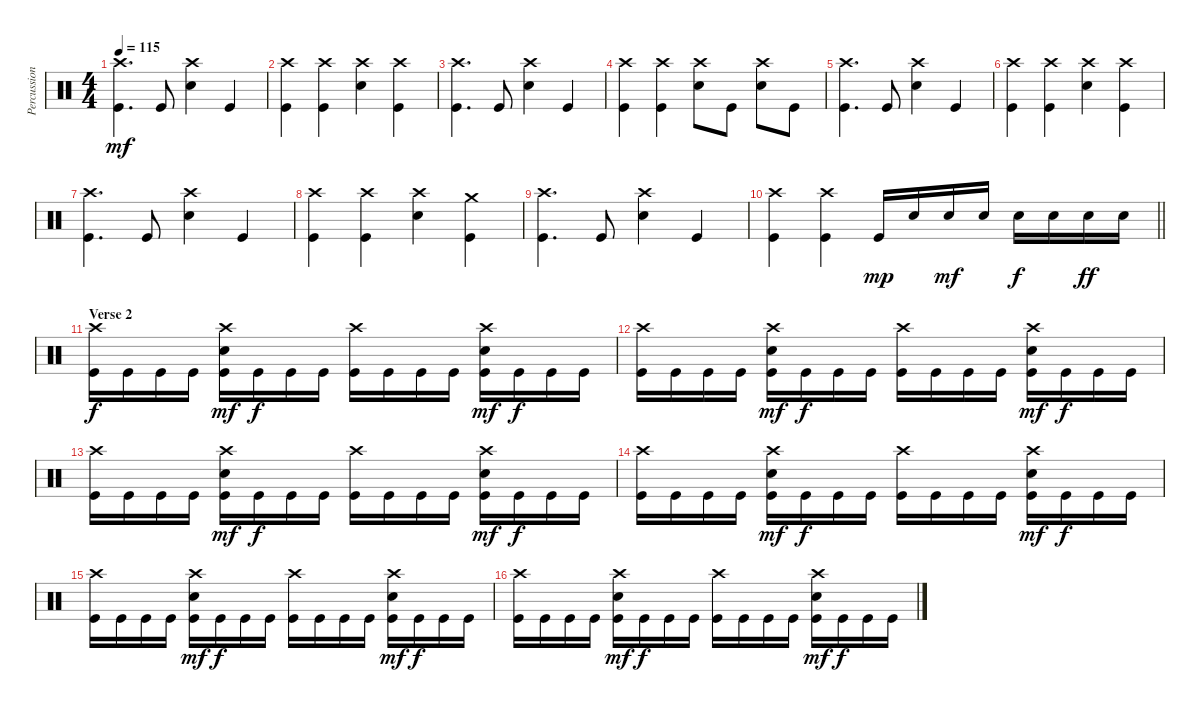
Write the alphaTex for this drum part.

\track ("Percussion" "Percussion") {instrument percussion}
\staff {score}
\articulation defaults
\ts (4 4)
\tempo 115
\clef neutral
\ks c
("Crash high (hit)" "Kick (hit)").4{d dy mf} "Kick (hit)".8 ("Snare (hit) 2" "Crash high (hit)").4 "Kick (hit)".4 |
("Crash high (hit)" "Kick (hit)").4 ("Crash high (hit)" "Kick (hit)").4 ("Snare (hit) 2" "Crash high (hit)").4 ("Crash high (hit)" "Kick (hit)").4 |
("Crash high (hit)" "Kick (hit)").4{d} "Kick (hit)".8 ("Snare (hit) 2" "Crash high (hit)").4 "Kick (hit)".4 |
("Crash high (hit)" "Kick (hit)").4 ("Crash high (hit)" "Kick (hit)").4 ("Snare (hit) 2" "Crash high (hit)").8 "Kick (hit)".8 ("Crash high (hit)" "Snare (hit) 2").8 "Kick (hit)".8 |
("Crash high (hit)" "Kick (hit)").4{d} "Kick (hit)".8 ("Snare (hit) 2" "Crash high (hit)").4 "Kick (hit)".4 |
("Crash high (hit)" "Kick (hit)").4 ("Crash high (hit)" "Kick (hit)").4 ("Snare (hit) 2" "Crash high (hit)").4 ("Crash high (hit)" "Kick (hit)").4 |
("Crash high (hit)" "Kick (hit)").4{d} "Kick (hit)".8 ("Snare (hit) 2" "Crash high (hit)").4 "Kick (hit)".4 |
("Crash high (hit)" "Kick (hit)").4 ("Crash high (hit)" "Kick (hit)").4 ("Snare (hit) 2" "Crash high (hit)").4 ("Crash medium (hit)" "Kick (hit)").4 |
("Crash high (hit)" "Kick (hit)").4{d} "Kick (hit)".8 ("Snare (hit) 2" "Crash high (hit)").4 "Kick (hit)".4 |
\barLineRight lightlight
("Crash high (hit)" "Kick (hit)").4 ("Crash high (hit)" "Kick (hit)").4 "Kick (hit)".16{dy mp} "Snare (hit) 2".16 "Snare (hit) 2".16{dy mf} "Snare (hit) 2".16 "Snare (hit) 2".16{dy f} "Snare (hit) 2".16 "Snare (hit) 2".16{dy ff} "Snare (hit) 2".16 |
\section ("" "Verse 2")
("Crash high (hit)" "Kick (hit)").16{dy f} "Kick (hit)".16 "Kick (hit)".16 "Kick (hit)".16 ("Crash high (hit)" "Snare (hit) 2" "Kick (hit)").16{dy mf} "Kick (hit)".16{dy f} "Kick (hit)".16 "Kick (hit)".16 ("Crash high (hit)" "Kick (hit)").16 "Kick (hit)".16 "Kick (hit)".16 "Kick (hit)".16 ("Crash high (hit)" "Snare (hit) 2" "Kick (hit)").16{dy mf} "Kick (hit)".16{dy f} "Kick (hit)".16 "Kick (hit)".16 |
("Crash high (hit)" "Kick (hit)").16 "Kick (hit)".16 "Kick (hit)".16 "Kick (hit)".16 ("Crash high (hit)" "Snare (hit) 2" "Kick (hit)").16{dy mf} "Kick (hit)".16{dy f} "Kick (hit)".16 "Kick (hit)".16 ("Crash high (hit)" "Kick (hit)").16 "Kick (hit)".16 "Kick (hit)".16 "Kick (hit)".16 ("Crash high (hit)" "Snare (hit) 2" "Kick (hit)").16{dy mf} "Kick (hit)".16{dy f} "Kick (hit)".16 "Kick (hit)".16 |
("Crash high (hit)" "Kick (hit)").16 "Kick (hit)".16 "Kick (hit)".16 "Kick (hit)".16 ("Crash high (hit)" "Snare (hit) 2" "Kick (hit)").16{dy mf} "Kick (hit)".16{dy f} "Kick (hit)".16 "Kick (hit)".16 ("Crash high (hit)" "Kick (hit)").16 "Kick (hit)".16 "Kick (hit)".16 "Kick (hit)".16 ("Crash high (hit)" "Snare (hit) 2" "Kick (hit)").16{dy mf} "Kick (hit)".16{dy f} "Kick (hit)".16 "Kick (hit)".16 |
("Crash high (hit)" "Kick (hit)").16 "Kick (hit)".16 "Kick (hit)".16 "Kick (hit)".16 ("Crash high (hit)" "Snare (hit) 2" "Kick (hit)").16{dy mf} "Kick (hit)".16{dy f} "Kick (hit)".16 "Kick (hit)".16 ("Crash high (hit)" "Kick (hit)").16 "Kick (hit)".16 "Kick (hit)".16 "Kick (hit)".16 ("Crash high (hit)" "Snare (hit) 2" "Kick (hit)").16{dy mf} "Kick (hit)".16{dy f} "Kick (hit)".16 "Kick (hit)".16 |
("Crash high (hit)" "Kick (hit)").16 "Kick (hit)".16 "Kick (hit)".16 "Kick (hit)".16 ("Crash high (hit)" "Snare (hit) 2" "Kick (hit)").16{dy mf} "Kick (hit)".16{dy f} "Kick (hit)".16 "Kick (hit)".16 ("Crash high (hit)" "Kick (hit)").16 "Kick (hit)".16 "Kick (hit)".16 "Kick (hit)".16 ("Crash high (hit)" "Snare (hit) 2" "Kick (hit)").16{dy mf} "Kick (hit)".16{dy f} "Kick (hit)".16 "Kick (hit)".16 |
("Crash high (hit)" "Kick (hit)").16 "Kick (hit)".16 "Kick (hit)".16 "Kick (hit)".16 ("Crash high (hit)" "Snare (hit) 2" "Kick (hit)").16{dy mf} "Kick (hit)".16{dy f} "Kick (hit)".16 "Kick (hit)".16 ("Crash high (hit)" "Kick (hit)").16 "Kick (hit)".16 "Kick (hit)".16 "Kick (hit)".16 ("Crash high (hit)" "Snare (hit) 2" "Kick (hit)").16{dy mf} "Kick (hit)".16{dy f} "Kick (hit)".16 "Kick (hit)".16
